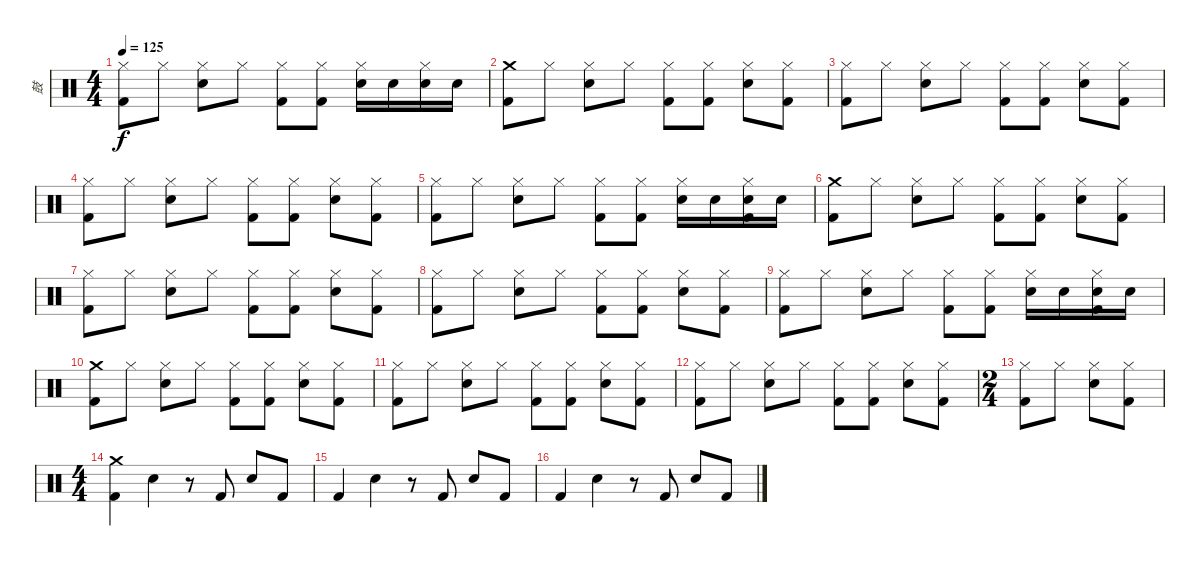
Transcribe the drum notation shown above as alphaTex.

\track ("鼓" "鼓") {instrument percussion}
\staff {score}
\articulation defaults
\ts (4 4)
\tempo 125
\clef neutral
\ks c
("Hi-Hat (closed)" "Kick (hit) 2").8{dy f} "Hi-Hat (closed)".8 ("Hi-Hat (closed)" "Electric Snare (hit)").8 "Hi-Hat (closed)".8 ("Hi-Hat (closed)" "Kick (hit) 2").8 ("Hi-Hat (closed)" "Kick (hit) 2").8 ("Hi-Hat (closed)" "Electric Snare (hit)").16 "Electric Snare (hit)".16 ("Hi-Hat (closed)" "Electric Snare (hit)").16 "Electric Snare (hit)".16 |
("Crash medium (hit)" "Kick (hit) 2").8 "Hi-Hat (closed)".8 ("Hi-Hat (closed)" "Electric Snare (hit)").8 "Hi-Hat (closed)".8 ("Hi-Hat (closed)" "Kick (hit) 2").8 ("Hi-Hat (closed)" "Kick (hit) 2").8 ("Hi-Hat (closed)" "Electric Snare (hit)").8 ("Hi-Hat (closed)" "Kick (hit) 2").8 |
("Hi-Hat (closed)" "Kick (hit) 2").8 "Hi-Hat (closed)".8 ("Hi-Hat (closed)" "Electric Snare (hit)").8 "Hi-Hat (closed)".8 ("Hi-Hat (closed)" "Kick (hit) 2").8 ("Hi-Hat (closed)" "Kick (hit) 2").8 ("Hi-Hat (closed)" "Electric Snare (hit)").8 ("Hi-Hat (closed)" "Kick (hit) 2").8 |
("Hi-Hat (closed)" "Kick (hit) 2").8 "Hi-Hat (closed)".8 ("Hi-Hat (closed)" "Electric Snare (hit)").8 "Hi-Hat (closed)".8 ("Hi-Hat (closed)" "Kick (hit) 2").8 ("Hi-Hat (closed)" "Kick (hit) 2").8 ("Hi-Hat (closed)" "Electric Snare (hit)").8 ("Hi-Hat (closed)" "Kick (hit) 2").8 |
("Hi-Hat (closed)" "Kick (hit) 2").8 "Hi-Hat (closed)".8 ("Hi-Hat (closed)" "Electric Snare (hit)").8 "Hi-Hat (closed)".8 ("Hi-Hat (closed)" "Kick (hit) 2").8 ("Hi-Hat (closed)" "Kick (hit) 2").8 ("Hi-Hat (closed)" "Electric Snare (hit)").16 "Electric Snare (hit)".16 ("Hi-Hat (closed)" "Electric Snare (hit)" "Kick (hit) 2").16 "Electric Snare (hit)".16 |
("Crash medium (hit)" "Kick (hit) 2").8 "Hi-Hat (closed)".8 ("Hi-Hat (closed)" "Electric Snare (hit)").8 "Hi-Hat (closed)".8 ("Hi-Hat (closed)" "Kick (hit) 2").8 ("Hi-Hat (closed)" "Kick (hit) 2").8 ("Hi-Hat (closed)" "Electric Snare (hit)").8 ("Hi-Hat (closed)" "Kick (hit) 2").8 |
("Hi-Hat (closed)" "Kick (hit) 2").8 "Hi-Hat (closed)".8 ("Hi-Hat (closed)" "Electric Snare (hit)").8 "Hi-Hat (closed)".8 ("Hi-Hat (closed)" "Kick (hit) 2").8 ("Hi-Hat (closed)" "Kick (hit) 2").8 ("Hi-Hat (closed)" "Electric Snare (hit)").8 ("Hi-Hat (closed)" "Kick (hit) 2").8 |
("Hi-Hat (closed)" "Kick (hit) 2").8 "Hi-Hat (closed)".8 ("Hi-Hat (closed)" "Electric Snare (hit)").8 "Hi-Hat (closed)".8 ("Hi-Hat (closed)" "Kick (hit) 2").8 ("Hi-Hat (closed)" "Kick (hit) 2").8 ("Hi-Hat (closed)" "Electric Snare (hit)").8 ("Hi-Hat (closed)" "Kick (hit) 2").8 |
("Hi-Hat (closed)" "Kick (hit) 2").8 "Hi-Hat (closed)".8 ("Hi-Hat (closed)" "Electric Snare (hit)").8 "Hi-Hat (closed)".8 ("Hi-Hat (closed)" "Kick (hit) 2").8 ("Hi-Hat (closed)" "Kick (hit) 2").8 ("Hi-Hat (closed)" "Electric Snare (hit)").16 "Electric Snare (hit)".16 ("Hi-Hat (closed)" "Electric Snare (hit)" "Kick (hit) 2").16 "Electric Snare (hit)".16 |
("Crash medium (hit)" "Kick (hit) 2").8 "Hi-Hat (closed)".8 ("Hi-Hat (closed)" "Electric Snare (hit)").8 "Hi-Hat (closed)".8 ("Hi-Hat (closed)" "Kick (hit) 2").8 ("Hi-Hat (closed)" "Kick (hit) 2").8 ("Hi-Hat (closed)" "Electric Snare (hit)").8 ("Hi-Hat (closed)" "Kick (hit) 2").8 |
("Hi-Hat (closed)" "Kick (hit) 2").8 "Hi-Hat (closed)".8 ("Hi-Hat (closed)" "Electric Snare (hit)").8 "Hi-Hat (closed)".8 ("Hi-Hat (closed)" "Kick (hit) 2").8 ("Hi-Hat (closed)" "Kick (hit) 2").8 ("Hi-Hat (closed)" "Electric Snare (hit)").8 ("Hi-Hat (closed)" "Kick (hit) 2").8 |
("Hi-Hat (closed)" "Kick (hit) 2").8 "Hi-Hat (closed)".8 ("Hi-Hat (closed)" "Electric Snare (hit)").8 "Hi-Hat (closed)".8 ("Hi-Hat (closed)" "Kick (hit) 2").8 ("Hi-Hat (closed)" "Kick (hit) 2").8 ("Hi-Hat (closed)" "Electric Snare (hit)").8 ("Hi-Hat (closed)" "Kick (hit) 2").8 |
\ts (2 4)
("Hi-Hat (closed)" "Kick (hit) 2").8 "Hi-Hat (closed)".8 ("Hi-Hat (closed)" "Electric Snare (hit)").8 ("Hi-Hat (closed)" "Kick (hit) 2").8 |
\ts (4 4)
("Crash medium (hit)" "Kick (hit) 2").4 "Electric Snare (hit)".4 r.8 "Kick (hit) 2".8 "Electric Snare (hit)".8 "Kick (hit) 2".8 |
"Kick (hit) 2".4 "Electric Snare (hit)".4 r.8 "Kick (hit) 2".8 "Electric Snare (hit)".8 "Kick (hit) 2".8 |
"Kick (hit) 2".4 "Electric Snare (hit)".4 r.8 "Kick (hit) 2".8 "Electric Snare (hit)".8 "Kick (hit) 2".8
